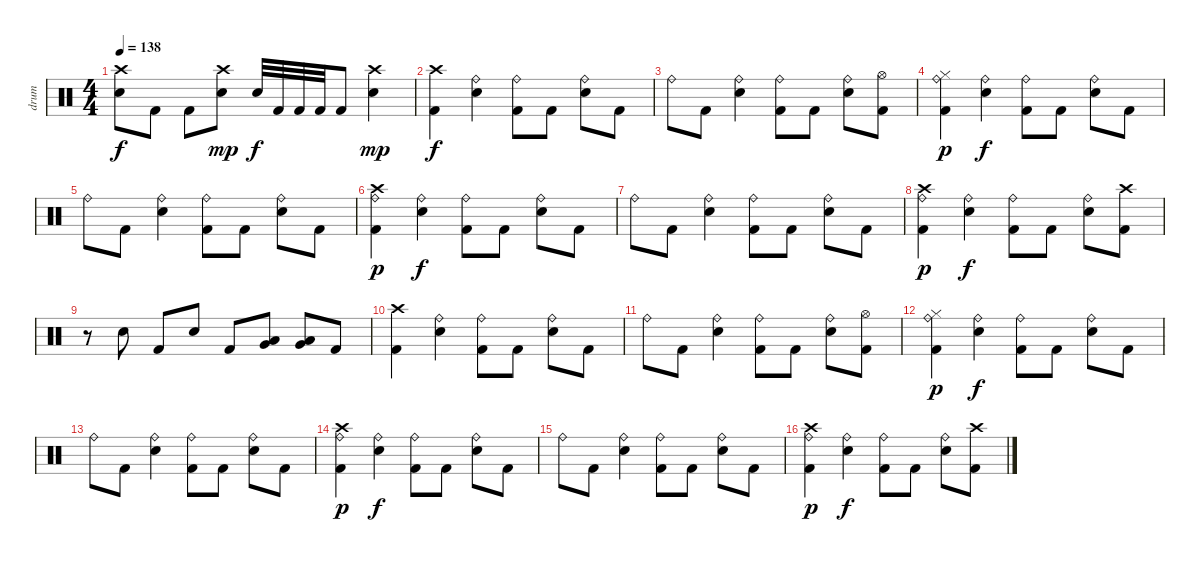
\track ("drum" "drum") {instrument percussion}
\staff {score}
\articulation defaults
\ts (4 4)
\tempo 138
\clef neutral
\ks c
("Crash high (hit)" "Snare (hit) 2").8{dy f} "Kick (hit) 2".8 "Kick (hit) 2".8 ("Crash high (hit)" "Snare (hit) 2").8{dy mp} "Snare (hit) 2".32{dy f} "Kick (hit) 2".32 "Kick (hit) 2".32 "Kick (hit) 2".32 "Kick (hit) 2".8 ("Crash high (hit)" "Snare (hit) 2").4{dy mp} |
("Crash high (hit)" "Kick (hit) 2").4{dy f} ("Ride (bell)" "Snare (hit) 2").4 ("Ride (bell)" "Kick (hit) 2").8 "Kick (hit) 2".8 ("Ride (bell)" "Snare (hit) 2").8 "Kick (hit) 2".8 |
"Ride (bell)".8 "Kick (hit) 2".8 ("Ride (bell)" "Snare (hit) 2").4 ("Ride (bell)" "Kick (hit) 2").8 "Kick (hit) 2".8 ("Ride (bell)" "Snare (hit) 2").8 ("Hi-Hat (open)" "Kick (hit) 2").8 |
("Ride (bell)" "Hi-Hat (closed)" "Kick (hit) 2").4{dy p} ("Ride (bell)" "Snare (hit) 2").4{dy f} ("Ride (bell)" "Kick (hit) 2").8 "Kick (hit) 2".8 ("Ride (bell)" "Snare (hit) 2").8 "Kick (hit) 2".8 |
"Ride (bell)".8 "Kick (hit) 2".8 ("Ride (bell)" "Snare (hit) 2").4 ("Ride (bell)" "Kick (hit) 2").8 "Kick (hit) 2".8 ("Ride (bell)" "Snare (hit) 2").8 "Kick (hit) 2".8 |
("Crash high (hit)" "Ride (bell)" "Kick (hit) 2").4{dy p} ("Ride (bell)" "Snare (hit) 2").4{dy f} ("Ride (bell)" "Kick (hit) 2").8 "Kick (hit) 2".8 ("Ride (bell)" "Snare (hit) 2").8 "Kick (hit) 2".8 |
"Ride (bell)".8 "Kick (hit) 2".8 ("Ride (bell)" "Snare (hit) 2").4 ("Ride (bell)" "Kick (hit) 2").8 "Kick (hit) 2".8 ("Ride (bell)" "Snare (hit) 2").8 "Kick (hit) 2".8 |
("Crash high (hit)" "Ride (bell)" "Kick (hit) 2").4{dy p} ("Ride (bell)" "Snare (hit) 2").4{dy f} ("Ride (bell)" "Kick (hit) 2").8 "Kick (hit) 2".8 ("Ride (bell)" "Snare (hit) 2").8 ("Crash high (hit)" "Kick (hit) 2").8 |
r.8 "Snare (hit) 2".8 "Kick (hit) 2".8 "Snare (hit) 2".8 "Kick (hit) 2".8 ("Low Tom (hit)" "Very Low Tom (hit)").8 ("Low Tom (hit)" "Very Low Tom (hit)").8 "Kick (hit) 2".8 |
("Crash high (hit)" "Kick (hit) 2").4 ("Ride (bell)" "Snare (hit) 2").4 ("Ride (bell)" "Kick (hit) 2").8 "Kick (hit) 2".8 ("Ride (bell)" "Snare (hit) 2").8 "Kick (hit) 2".8 |
"Ride (bell)".8 "Kick (hit) 2".8 ("Ride (bell)" "Snare (hit) 2").4 ("Ride (bell)" "Kick (hit) 2").8 "Kick (hit) 2".8 ("Ride (bell)" "Snare (hit) 2").8 ("Hi-Hat (open)" "Kick (hit) 2").8 |
("Ride (bell)" "Hi-Hat (closed)" "Kick (hit) 2").4{dy p} ("Ride (bell)" "Snare (hit) 2").4{dy f} ("Ride (bell)" "Kick (hit) 2").8 "Kick (hit) 2".8 ("Ride (bell)" "Snare (hit) 2").8 "Kick (hit) 2".8 |
"Ride (bell)".8 "Kick (hit) 2".8 ("Ride (bell)" "Snare (hit) 2").4 ("Ride (bell)" "Kick (hit) 2").8 "Kick (hit) 2".8 ("Ride (bell)" "Snare (hit) 2").8 "Kick (hit) 2".8 |
("Crash high (hit)" "Ride (bell)" "Kick (hit) 2").4{dy p} ("Ride (bell)" "Snare (hit) 2").4{dy f} ("Ride (bell)" "Kick (hit) 2").8 "Kick (hit) 2".8 ("Ride (bell)" "Snare (hit) 2").8 "Kick (hit) 2".8 |
"Ride (bell)".8 "Kick (hit) 2".8 ("Ride (bell)" "Snare (hit) 2").4 ("Ride (bell)" "Kick (hit) 2").8 "Kick (hit) 2".8 ("Ride (bell)" "Snare (hit) 2").8 "Kick (hit) 2".8 |
("Crash high (hit)" "Ride (bell)" "Kick (hit) 2").4{dy p} ("Ride (bell)" "Snare (hit) 2").4{dy f} ("Ride (bell)" "Kick (hit) 2").8 "Kick (hit) 2".8 ("Ride (bell)" "Snare (hit) 2").8 ("Crash high (hit)" "Kick (hit) 2").8
